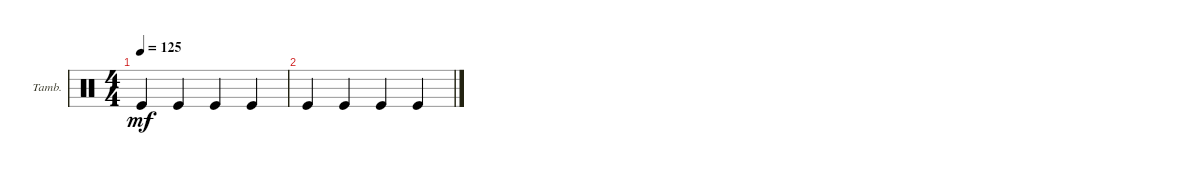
\defaultSystemsLayout 4
\bracketExtendMode groupsimilarinstruments
\firstSystemTrackNameOrientation horizontal
\otherSystemsTrackNameOrientation horizontal
\track ("Tambourine" "Tamb.") {instrument percussion}
\staff {score}
\articulation defaults
\ts (4 4)
\tempo 125
\clef neutral
\ks c "Kick (hit)".4{dy mf} "Kick (hit)".4 "Kick (hit)".4 "Kick (hit)".4
|
"Kick (hit)".4 "Kick (hit)".4 "Kick (hit)".4 "Kick (hit)".4
